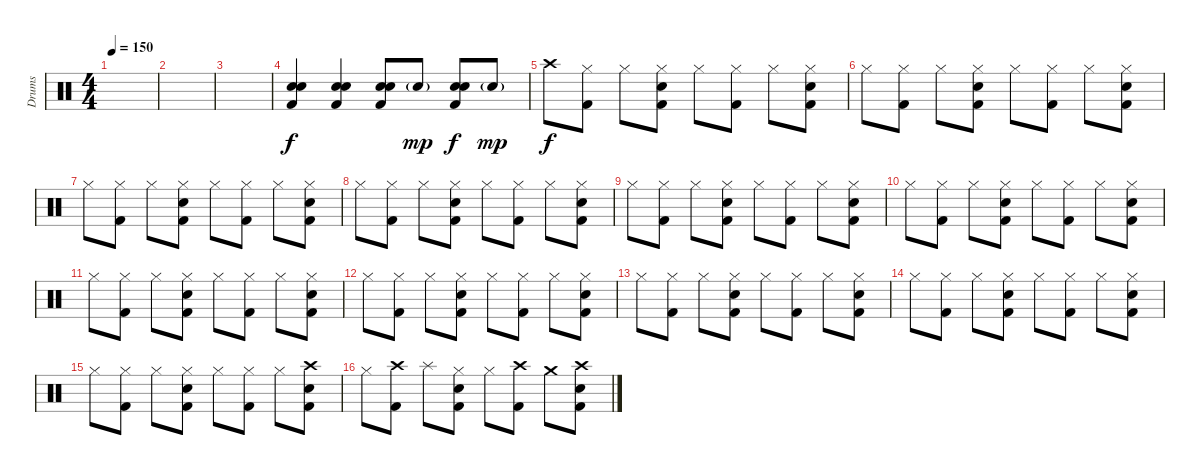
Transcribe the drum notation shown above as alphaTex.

\track ("Drums" "Drums") {instrument percussion}
\staff {score}
\articulation defaults
\ts (4 4)
\tempo 150
\clef neutral
\ks c
|
|
|
("Kick (hit) 2" "Electric Snare (hit)" "Electric Snare (hit)").4 ("Kick (hit) 2" "Electric Snare (hit)" "Electric Snare (hit)").4 ("Kick (hit) 2" "Electric Snare (hit)" "Electric Snare (hit)").8 "Electric Snare (hit)"{g}.8{dy mp} ("Kick (hit) 2" "Electric Snare (hit)" "Electric Snare (hit)").8{dy f} "Electric Snare (hit)"{g}.8{dy mp} |
"Crash high (hit)".8{dy f} ("Kick (hit) 2" "Hi-Hat (closed)").8 "Hi-Hat (closed)".8 ("Electric Snare (hit)" "Kick (hit) 2" "Hi-Hat (closed)").8 "Hi-Hat (closed)".8 ("Kick (hit) 2" "Hi-Hat (closed)").8 "Hi-Hat (closed)".8 ("Electric Snare (hit)" "Kick (hit) 2" "Hi-Hat (closed)").8 |
"Hi-Hat (closed)".8 ("Kick (hit) 2" "Hi-Hat (closed)").8 "Hi-Hat (closed)".8 ("Electric Snare (hit)" "Kick (hit) 2" "Hi-Hat (closed)").8 "Hi-Hat (closed)".8 ("Kick (hit) 2" "Hi-Hat (closed)").8 "Hi-Hat (closed)".8 ("Electric Snare (hit)" "Kick (hit) 2" "Hi-Hat (closed)").8 |
"Hi-Hat (closed)".8 ("Kick (hit) 2" "Hi-Hat (closed)").8 "Hi-Hat (closed)".8 ("Electric Snare (hit)" "Kick (hit) 2" "Hi-Hat (closed)").8 "Hi-Hat (closed)".8 ("Kick (hit) 2" "Hi-Hat (closed)").8 "Hi-Hat (closed)".8 ("Electric Snare (hit)" "Kick (hit) 2" "Hi-Hat (closed)").8 |
"Hi-Hat (closed)".8 ("Kick (hit) 2" "Hi-Hat (closed)").8 "Hi-Hat (closed)".8 ("Electric Snare (hit)" "Kick (hit) 2" "Hi-Hat (closed)").8 "Hi-Hat (closed)".8 ("Kick (hit) 2" "Hi-Hat (closed)").8 "Hi-Hat (closed)".8 ("Electric Snare (hit)" "Kick (hit) 2" "Hi-Hat (closed)").8 |
"Hi-Hat (closed)".8 ("Kick (hit) 2" "Hi-Hat (closed)").8 "Hi-Hat (closed)".8 ("Electric Snare (hit)" "Kick (hit) 2" "Hi-Hat (closed)").8 "Hi-Hat (closed)".8 ("Kick (hit) 2" "Hi-Hat (closed)").8 "Hi-Hat (closed)".8 ("Electric Snare (hit)" "Kick (hit) 2" "Hi-Hat (closed)").8 |
"Hi-Hat (closed)".8 ("Kick (hit) 2" "Hi-Hat (closed)").8 "Hi-Hat (closed)".8 ("Electric Snare (hit)" "Kick (hit) 2" "Hi-Hat (closed)").8 "Hi-Hat (closed)".8 ("Kick (hit) 2" "Hi-Hat (closed)").8 "Hi-Hat (closed)".8 ("Electric Snare (hit)" "Kick (hit) 2" "Hi-Hat (closed)").8 |
"Hi-Hat (closed)".8 ("Kick (hit) 2" "Hi-Hat (closed)").8 "Hi-Hat (closed)".8 ("Electric Snare (hit)" "Kick (hit) 2" "Hi-Hat (closed)").8 "Hi-Hat (closed)".8 ("Kick (hit) 2" "Hi-Hat (closed)").8 "Hi-Hat (closed)".8 ("Electric Snare (hit)" "Kick (hit) 2" "Hi-Hat (closed)").8 |
"Hi-Hat (closed)".8 ("Kick (hit) 2" "Hi-Hat (closed)").8 "Hi-Hat (closed)".8 ("Electric Snare (hit)" "Kick (hit) 2" "Hi-Hat (closed)").8 "Hi-Hat (closed)".8 ("Kick (hit) 2" "Hi-Hat (closed)").8 "Hi-Hat (closed)".8 ("Electric Snare (hit)" "Kick (hit) 2" "Hi-Hat (closed)").8 |
"Hi-Hat (closed)".8 ("Kick (hit) 2" "Hi-Hat (closed)").8 "Hi-Hat (closed)".8 ("Electric Snare (hit)" "Kick (hit) 2" "Hi-Hat (closed)").8 "Hi-Hat (closed)".8 ("Kick (hit) 2" "Hi-Hat (closed)").8 "Hi-Hat (closed)".8 ("Electric Snare (hit)" "Kick (hit) 2" "Hi-Hat (closed)").8 |
"Hi-Hat (closed)".8 ("Kick (hit) 2" "Hi-Hat (closed)").8 "Hi-Hat (closed)".8 ("Electric Snare (hit)" "Kick (hit) 2" "Hi-Hat (closed)").8 "Hi-Hat (closed)".8 ("Kick (hit) 2" "Hi-Hat (closed)").8 "Hi-Hat (closed)".8 ("Electric Snare (hit)" "Kick (hit) 2" "Hi-Hat (closed)").8 |
"Hi-Hat (closed)".8 ("Kick (hit) 2" "Hi-Hat (closed)").8 "Hi-Hat (closed)".8 ("Electric Snare (hit)" "Kick (hit) 2" "Hi-Hat (closed)").8 "Hi-Hat (closed)".8 ("Kick (hit) 2" "Hi-Hat (closed)").8 "Hi-Hat (closed)".8 ("Electric Snare (hit)" "Kick (hit) 2" "Crash high (hit)").8 |
"Hi-Hat (closed)".8 ("Kick (hit) 2" "Crash high (hit)").8 "Splash (hit)".8 ("Electric Snare (hit)" "Kick (hit) 2" "Hi-Hat (closed)").8 "Hi-Hat (closed)".8 ("Kick (hit) 2" "Crash high (hit)").8 "Crash medium (hit)".8 ("Electric Snare (hit)" "Kick (hit) 2" "Crash high (hit)").8
